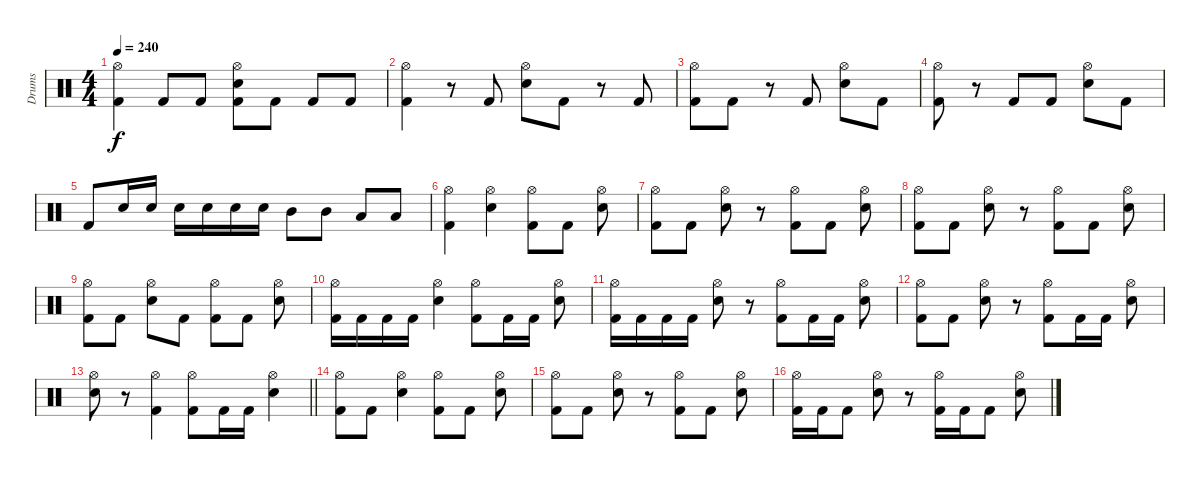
\track ("Drums" "Drums") {instrument percussion}
\staff {score}
\articulation defaults
\ts (4 4)
\tempo 240
\clef neutral
\ks c
("Hi-Hat (open)" "Kick (hit) 2").4{dy f} "Kick (hit) 2".8 "Kick (hit) 2".8 ("Hi-Hat (open)" "Electric Snare (hit)" "Kick (hit) 2").8 "Kick (hit) 2".8 "Kick (hit) 2".8 "Kick (hit) 2".8 |
("Hi-Hat (open)" "Kick (hit) 2").4 r.8 "Kick (hit) 2".8 ("Hi-Hat (open)" "Electric Snare (hit)").8 "Kick (hit) 2".8 r.8 "Kick (hit) 2".8 |
("Hi-Hat (open)" "Kick (hit) 2").8 "Kick (hit) 2".8 r.8 "Kick (hit) 2".8 ("Hi-Hat (open)" "Electric Snare (hit)").8 "Kick (hit) 2".8 |
("Hi-Hat (open)" "Kick (hit) 2").8 r.8 "Kick (hit) 2".8 "Kick (hit) 2".8 ("Hi-Hat (open)" "Electric Snare (hit)").8 "Kick (hit) 2".8 |
"Kick (hit) 2".8 "Electric Snare (hit)".16 "Electric Snare (hit)".16 "Electric Snare (hit)".16 "Electric Snare (hit)".16 "Electric Snare (hit)".16 "Electric Snare (hit)".16 "Mid Tom (hit)".8 "Mid Tom (hit)".8 "Low Tom (hit)".8 "Low Tom (hit)".8 |
("Hi-Hat (open)" "Kick (hit) 2").4 ("Hi-Hat (open)" "Electric Snare (hit)").4 ("Hi-Hat (open)" "Kick (hit) 2").8 "Kick (hit) 2".8 ("Hi-Hat (open)" "Electric Snare (hit)").8 |
("Hi-Hat (open)" "Kick (hit) 2").8 "Kick (hit) 2".8 ("Hi-Hat (open)" "Electric Snare (hit)").8 r.8 ("Hi-Hat (open)" "Kick (hit) 2").8 "Kick (hit) 2".8 ("Hi-Hat (open)" "Electric Snare (hit)").8 |
("Hi-Hat (open)" "Kick (hit) 2").8 "Kick (hit) 2".8 ("Hi-Hat (open)" "Electric Snare (hit)").8 r.8 ("Hi-Hat (open)" "Kick (hit) 2").8 "Kick (hit) 2".8 ("Hi-Hat (open)" "Electric Snare (hit)").8 |
("Hi-Hat (open)" "Kick (hit) 2").8 "Kick (hit) 2".8 ("Hi-Hat (open)" "Electric Snare (hit)").8 "Kick (hit) 2".8 ("Hi-Hat (open)" "Kick (hit) 2").8 "Kick (hit) 2".8 ("Hi-Hat (open)" "Electric Snare (hit)").8 |
("Hi-Hat (open)" "Kick (hit) 2").16 "Kick (hit) 2".16 "Kick (hit) 2".16 "Kick (hit) 2".16 ("Hi-Hat (open)" "Electric Snare (hit)").4 ("Hi-Hat (open)" "Kick (hit) 2").8 "Kick (hit) 2".16 "Kick (hit) 2".16 ("Hi-Hat (open)" "Electric Snare (hit)").8 |
("Hi-Hat (open)" "Kick (hit) 2").16 "Kick (hit) 2".16 "Kick (hit) 2".16 "Kick (hit) 2".16 ("Hi-Hat (open)" "Electric Snare (hit)").8 r.8 ("Hi-Hat (open)" "Kick (hit) 2").8 "Kick (hit) 2".16 "Kick (hit) 2".16 ("Hi-Hat (open)" "Electric Snare (hit)").8 |
("Hi-Hat (open)" "Kick (hit) 2").8 "Kick (hit) 2".8 ("Hi-Hat (open)" "Electric Snare (hit)").8 r.8 ("Hi-Hat (open)" "Kick (hit) 2").8 "Kick (hit) 2".16 "Kick (hit) 2".16 ("Hi-Hat (open)" "Electric Snare (hit)").8 |
\barLineRight lightlight
("Hi-Hat (open)" "Electric Snare (hit)").8 r.8 ("Hi-Hat (open)" "Kick (hit) 2").4 ("Hi-Hat (open)" "Kick (hit) 2").8 "Kick (hit) 2".16 "Kick (hit) 2".16 ("Hi-Hat (open)" "Electric Snare (hit)").4 |
("Hi-Hat (open)" "Kick (hit) 2").8 "Kick (hit) 2".8 ("Hi-Hat (open)" "Electric Snare (hit)").4 ("Hi-Hat (open)" "Kick (hit) 2").8 "Kick (hit) 2".8 ("Hi-Hat (open)" "Electric Snare (hit)").8 |
("Hi-Hat (open)" "Kick (hit) 2").8 "Kick (hit) 2".8 ("Hi-Hat (open)" "Electric Snare (hit)").8 r.8 ("Hi-Hat (open)" "Kick (hit) 2").8 "Kick (hit) 2".8 ("Hi-Hat (open)" "Electric Snare (hit)").8 |
("Hi-Hat (open)" "Kick (hit) 2").16 "Kick (hit) 2".16 "Kick (hit) 2".8 ("Hi-Hat (open)" "Electric Snare (hit)").8 r.8 ("Hi-Hat (open)" "Kick (hit) 2").16 "Kick (hit) 2".16 "Kick (hit) 2".8 ("Hi-Hat (open)" "Electric Snare (hit)").8
